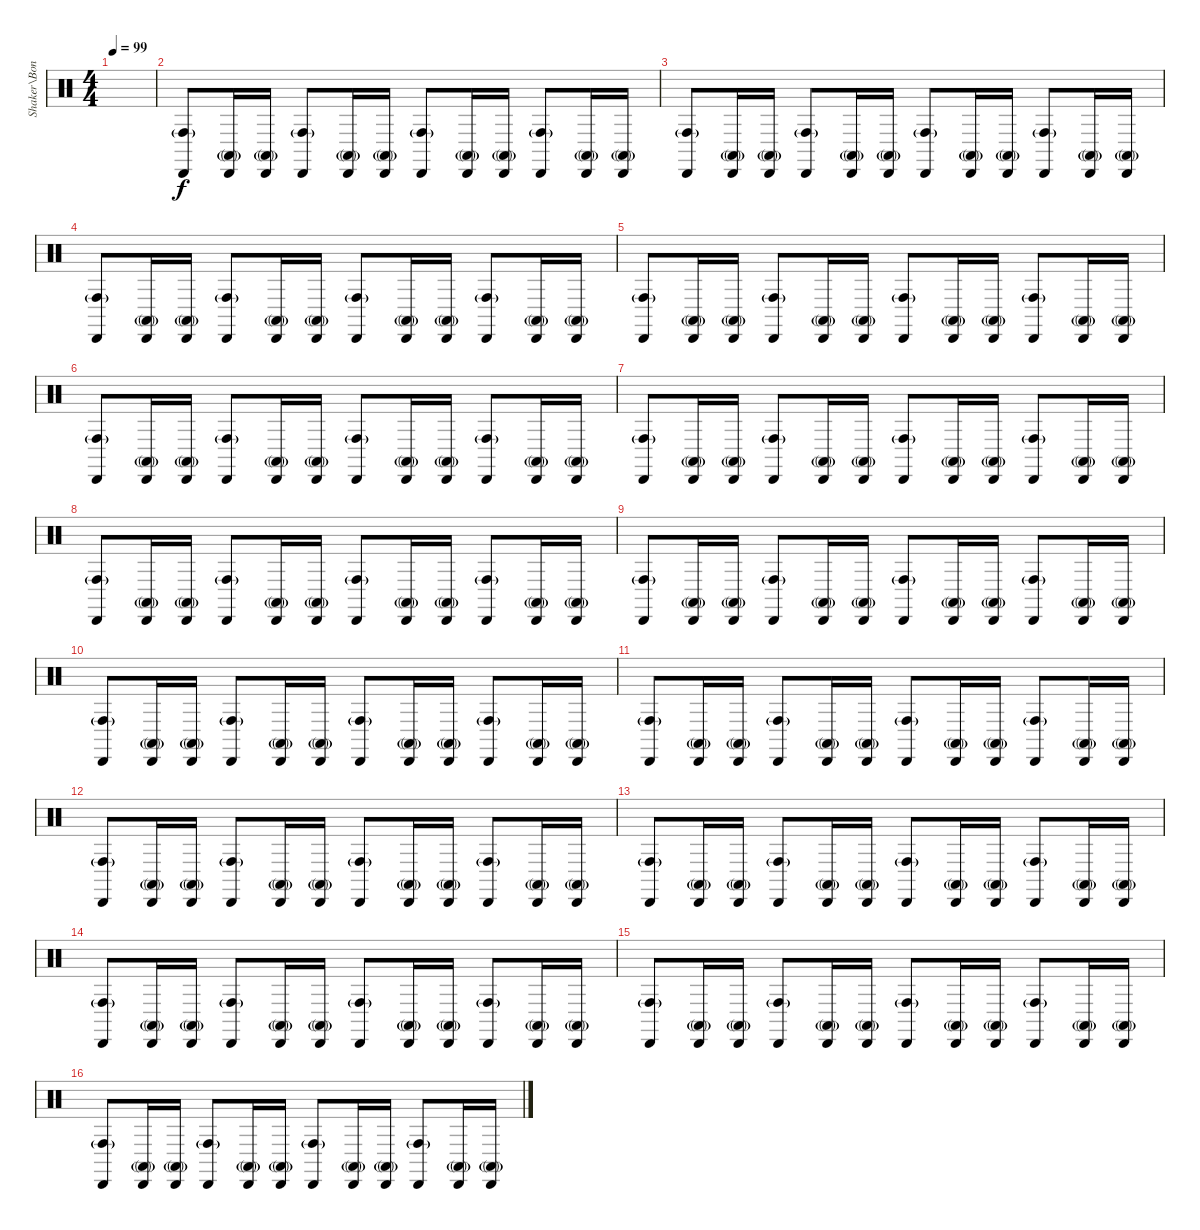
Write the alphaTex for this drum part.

\track ("Shaker\\Bongos" "Shaker\\Bon") {instrument percussion}
\staff {score}
\articulation defaults
\ts (4 4)
\tempo 99
\clef neutral
\ks c
|
("Cabasa (hit)" "Conga high (hit)"{g}).8 ("Cabasa (hit)" "Conga high (mute)"{g}).16 ("Cabasa (hit)" "Conga high (mute)"{g}).16 ("Cabasa (hit)" "Conga high (hit)"{g}).8 ("Cabasa (hit)" "Conga high (mute)"{g}).16 ("Cabasa (hit)" "Conga high (mute)"{g}).16 ("Cabasa (hit)" "Conga high (hit)"{g}).8 ("Cabasa (hit)" "Conga high (mute)"{g}).16 ("Cabasa (hit)" "Conga high (mute)"{g}).16 ("Cabasa (hit)" "Conga high (hit)"{g}).8 ("Cabasa (hit)" "Conga high (mute)"{g}).16 ("Cabasa (hit)" "Conga high (mute)"{g}).16 |
("Cabasa (hit)" "Conga high (hit)"{g}).8 ("Cabasa (hit)" "Conga high (mute)"{g}).16 ("Cabasa (hit)" "Conga high (mute)"{g}).16 ("Cabasa (hit)" "Conga high (hit)"{g}).8 ("Cabasa (hit)" "Conga high (mute)"{g}).16 ("Cabasa (hit)" "Conga high (mute)"{g}).16 ("Cabasa (hit)" "Conga high (hit)"{g}).8 ("Cabasa (hit)" "Conga high (mute)"{g}).16 ("Cabasa (hit)" "Conga high (mute)"{g}).16 ("Cabasa (hit)" "Conga high (hit)"{g}).8 ("Cabasa (hit)" "Conga high (mute)"{g}).16 ("Cabasa (hit)" "Conga high (mute)"{g}).16 |
("Cabasa (hit)" "Conga high (hit)"{g}).8 ("Cabasa (hit)" "Conga high (mute)"{g}).16 ("Cabasa (hit)" "Conga high (mute)"{g}).16 ("Cabasa (hit)" "Conga high (hit)"{g}).8 ("Cabasa (hit)" "Conga high (mute)"{g}).16 ("Cabasa (hit)" "Conga high (mute)"{g}).16 ("Cabasa (hit)" "Conga high (hit)"{g}).8 ("Cabasa (hit)" "Conga high (mute)"{g}).16 ("Cabasa (hit)" "Conga high (mute)"{g}).16 ("Cabasa (hit)" "Conga high (hit)"{g}).8 ("Cabasa (hit)" "Conga high (mute)"{g}).16 ("Cabasa (hit)" "Conga high (mute)"{g}).16 |
("Cabasa (hit)" "Conga high (hit)"{g}).8 ("Cabasa (hit)" "Conga high (mute)"{g}).16 ("Cabasa (hit)" "Conga high (mute)"{g}).16 ("Cabasa (hit)" "Conga high (hit)"{g}).8 ("Cabasa (hit)" "Conga high (mute)"{g}).16 ("Cabasa (hit)" "Conga high (mute)"{g}).16 ("Cabasa (hit)" "Conga high (hit)"{g}).8 ("Cabasa (hit)" "Conga high (mute)"{g}).16 ("Cabasa (hit)" "Conga high (mute)"{g}).16 ("Cabasa (hit)" "Conga high (hit)"{g}).8 ("Cabasa (hit)" "Conga high (mute)"{g}).16 ("Cabasa (hit)" "Conga high (mute)"{g}).16 |
("Cabasa (hit)" "Conga high (hit)"{g}).8 ("Cabasa (hit)" "Conga high (mute)"{g}).16 ("Cabasa (hit)" "Conga high (mute)"{g}).16 ("Cabasa (hit)" "Conga high (hit)"{g}).8 ("Cabasa (hit)" "Conga high (mute)"{g}).16 ("Cabasa (hit)" "Conga high (mute)"{g}).16 ("Cabasa (hit)" "Conga high (hit)"{g}).8 ("Cabasa (hit)" "Conga high (mute)"{g}).16 ("Cabasa (hit)" "Conga high (mute)"{g}).16 ("Cabasa (hit)" "Conga high (hit)"{g}).8 ("Cabasa (hit)" "Conga high (mute)"{g}).16 ("Cabasa (hit)" "Conga high (mute)"{g}).16 |
("Cabasa (hit)" "Conga high (hit)"{g}).8 ("Cabasa (hit)" "Conga high (mute)"{g}).16 ("Cabasa (hit)" "Conga high (mute)"{g}).16 ("Cabasa (hit)" "Conga high (hit)"{g}).8 ("Cabasa (hit)" "Conga high (mute)"{g}).16 ("Cabasa (hit)" "Conga high (mute)"{g}).16 ("Cabasa (hit)" "Conga high (hit)"{g}).8 ("Cabasa (hit)" "Conga high (mute)"{g}).16 ("Cabasa (hit)" "Conga high (mute)"{g}).16 ("Cabasa (hit)" "Conga high (hit)"{g}).8 ("Cabasa (hit)" "Conga high (mute)"{g}).16 ("Cabasa (hit)" "Conga high (mute)"{g}).16 |
("Cabasa (hit)" "Conga high (hit)"{g}).8 ("Cabasa (hit)" "Conga high (mute)"{g}).16 ("Cabasa (hit)" "Conga high (mute)"{g}).16 ("Cabasa (hit)" "Conga high (hit)"{g}).8 ("Cabasa (hit)" "Conga high (mute)"{g}).16 ("Cabasa (hit)" "Conga high (mute)"{g}).16 ("Cabasa (hit)" "Conga high (hit)"{g}).8 ("Cabasa (hit)" "Conga high (mute)"{g}).16 ("Cabasa (hit)" "Conga high (mute)"{g}).16 ("Cabasa (hit)" "Conga high (hit)"{g}).8 ("Cabasa (hit)" "Conga high (mute)"{g}).16 ("Cabasa (hit)" "Conga high (mute)"{g}).16 |
("Cabasa (hit)" "Conga high (hit)"{g}).8 ("Cabasa (hit)" "Conga high (mute)"{g}).16 ("Cabasa (hit)" "Conga high (mute)"{g}).16 ("Cabasa (hit)" "Conga high (hit)"{g}).8 ("Cabasa (hit)" "Conga high (mute)"{g}).16 ("Cabasa (hit)" "Conga high (mute)"{g}).16 ("Cabasa (hit)" "Conga high (hit)"{g}).8 ("Cabasa (hit)" "Conga high (mute)"{g}).16 ("Cabasa (hit)" "Conga high (mute)"{g}).16 ("Cabasa (hit)" "Conga high (hit)"{g}).8 ("Cabasa (hit)" "Conga high (mute)"{g}).16 ("Cabasa (hit)" "Conga high (mute)"{g}).16 |
("Cabasa (hit)" "Conga high (hit)"{g}).8 ("Cabasa (hit)" "Conga high (mute)"{g}).16 ("Cabasa (hit)" "Conga high (mute)"{g}).16 ("Cabasa (hit)" "Conga high (hit)"{g}).8 ("Cabasa (hit)" "Conga high (mute)"{g}).16 ("Cabasa (hit)" "Conga high (mute)"{g}).16 ("Cabasa (hit)" "Conga high (hit)"{g}).8 ("Cabasa (hit)" "Conga high (mute)"{g}).16 ("Cabasa (hit)" "Conga high (mute)"{g}).16 ("Cabasa (hit)" "Conga high (hit)"{g}).8 ("Cabasa (hit)" "Conga high (mute)"{g}).16 ("Cabasa (hit)" "Conga high (mute)"{g}).16 |
("Cabasa (hit)" "Conga high (hit)"{g}).8 ("Cabasa (hit)" "Conga high (mute)"{g}).16 ("Cabasa (hit)" "Conga high (mute)"{g}).16 ("Cabasa (hit)" "Conga high (hit)"{g}).8 ("Cabasa (hit)" "Conga high (mute)"{g}).16 ("Cabasa (hit)" "Conga high (mute)"{g}).16 ("Cabasa (hit)" "Conga high (hit)"{g}).8 ("Cabasa (hit)" "Conga high (mute)"{g}).16 ("Cabasa (hit)" "Conga high (mute)"{g}).16 ("Cabasa (hit)" "Conga high (hit)"{g}).8 ("Cabasa (hit)" "Conga high (mute)"{g}).16 ("Cabasa (hit)" "Conga high (mute)"{g}).16 |
("Cabasa (hit)" "Conga high (hit)"{g}).8 ("Cabasa (hit)" "Conga high (mute)"{g}).16 ("Cabasa (hit)" "Conga high (mute)"{g}).16 ("Cabasa (hit)" "Conga high (hit)"{g}).8 ("Cabasa (hit)" "Conga high (mute)"{g}).16 ("Cabasa (hit)" "Conga high (mute)"{g}).16 ("Cabasa (hit)" "Conga high (hit)"{g}).8 ("Cabasa (hit)" "Conga high (mute)"{g}).16 ("Cabasa (hit)" "Conga high (mute)"{g}).16 ("Cabasa (hit)" "Conga high (hit)"{g}).8 ("Cabasa (hit)" "Conga high (mute)"{g}).16 ("Cabasa (hit)" "Conga high (mute)"{g}).16 |
("Cabasa (hit)" "Conga high (hit)"{g}).8 ("Cabasa (hit)" "Conga high (mute)"{g}).16 ("Cabasa (hit)" "Conga high (mute)"{g}).16 ("Cabasa (hit)" "Conga high (hit)"{g}).8 ("Cabasa (hit)" "Conga high (mute)"{g}).16 ("Cabasa (hit)" "Conga high (mute)"{g}).16 ("Cabasa (hit)" "Conga high (hit)"{g}).8 ("Cabasa (hit)" "Conga high (mute)"{g}).16 ("Cabasa (hit)" "Conga high (mute)"{g}).16 ("Cabasa (hit)" "Conga high (hit)"{g}).8 ("Cabasa (hit)" "Conga high (mute)"{g}).16 ("Cabasa (hit)" "Conga high (mute)"{g}).16 |
("Cabasa (hit)" "Conga high (hit)"{g}).8 ("Cabasa (hit)" "Conga high (mute)"{g}).16 ("Cabasa (hit)" "Conga high (mute)"{g}).16 ("Cabasa (hit)" "Conga high (hit)"{g}).8 ("Cabasa (hit)" "Conga high (mute)"{g}).16 ("Cabasa (hit)" "Conga high (mute)"{g}).16 ("Cabasa (hit)" "Conga high (hit)"{g}).8 ("Cabasa (hit)" "Conga high (mute)"{g}).16 ("Cabasa (hit)" "Conga high (mute)"{g}).16 ("Cabasa (hit)" "Conga high (hit)"{g}).8 ("Cabasa (hit)" "Conga high (mute)"{g}).16 ("Cabasa (hit)" "Conga high (mute)"{g}).16 |
("Cabasa (hit)" "Conga high (hit)"{g}).8 ("Cabasa (hit)" "Conga high (mute)"{g}).16 ("Cabasa (hit)" "Conga high (mute)"{g}).16 ("Cabasa (hit)" "Conga high (hit)"{g}).8 ("Cabasa (hit)" "Conga high (mute)"{g}).16 ("Cabasa (hit)" "Conga high (mute)"{g}).16 ("Cabasa (hit)" "Conga high (hit)"{g}).8 ("Cabasa (hit)" "Conga high (mute)"{g}).16 ("Cabasa (hit)" "Conga high (mute)"{g}).16 ("Cabasa (hit)" "Conga high (hit)"{g}).8 ("Cabasa (hit)" "Conga high (mute)"{g}).16 ("Cabasa (hit)" "Conga high (mute)"{g}).16 |
("Cabasa (hit)" "Conga high (hit)"{g}).8 ("Cabasa (hit)" "Conga high (mute)"{g}).16 ("Cabasa (hit)" "Conga high (mute)"{g}).16 ("Cabasa (hit)" "Conga high (hit)"{g}).8 ("Cabasa (hit)" "Conga high (mute)"{g}).16 ("Cabasa (hit)" "Conga high (mute)"{g}).16 ("Cabasa (hit)" "Conga high (hit)"{g}).8 ("Cabasa (hit)" "Conga high (mute)"{g}).16 ("Cabasa (hit)" "Conga high (mute)"{g}).16 ("Cabasa (hit)" "Conga high (hit)"{g}).8 ("Cabasa (hit)" "Conga high (mute)"{g}).16 ("Cabasa (hit)" "Conga high (mute)"{g}).16
